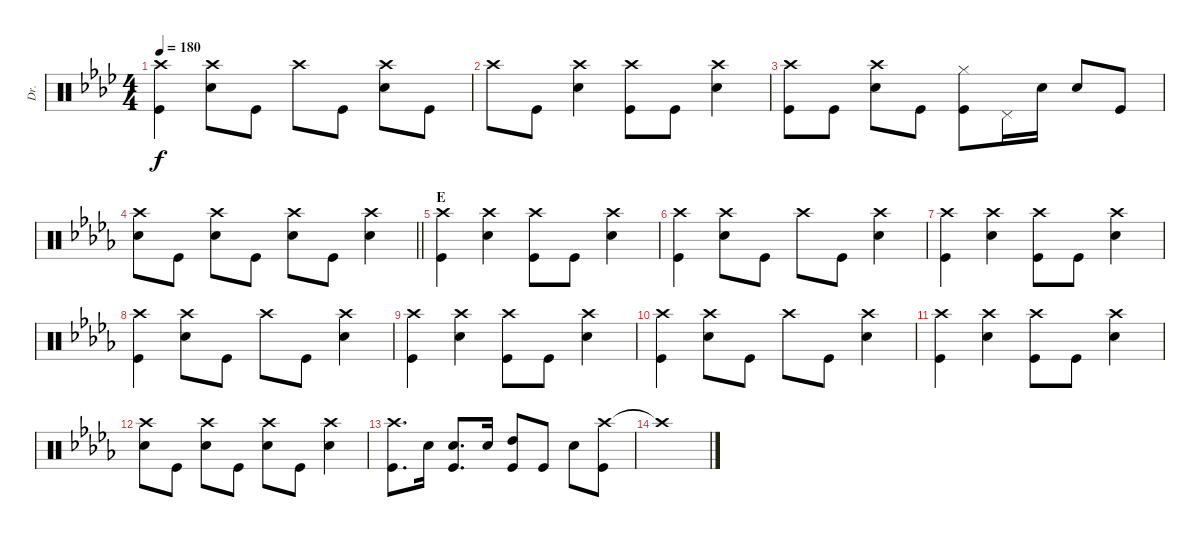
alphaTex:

\track ("Dr." "Dr.") {instrument percussion}
\staff {score}
\articulation defaults
\ts (4 4)
\tempo 180
\clef neutral
\ks ab
("Crash high (hit)" "Kick (hit)").4{dy f} ("Crash high (hit)" "Snare (hit) 2").8 "Kick (hit)".8 "Crash high (hit)".8 "Kick (hit)".8 ("Crash high (hit)" "Snare (hit) 2").8 "Kick (hit)".8 |
"Crash high (hit)".8 "Kick (hit)".8 ("Crash high (hit)" "Snare (hit) 2").4 ("Crash high (hit)" "Kick (hit)").8 "Kick (hit)".8 ("Crash high (hit)" "Snare (hit) 2").4 |
("Crash high (hit)" "Kick (hit)").8 "Kick (hit)".8 ("Crash high (hit)" "Snare (hit) 2").8 "Kick (hit)".8 ("Hi-Hat (closed)" "Kick (hit)").8 "Pedal Hi-Hat (hit)".16 "Snare (hit) 2".16 "Snare (hit) 2".8 "Kick (hit)".8 |
\barLineRight lightlight
\ks db
("Crash high (hit)" "Snare (hit) 2").8 "Kick (hit)".8 ("Crash high (hit)" "Snare (hit) 2").8 "Kick (hit)".8 ("Crash high (hit)" "Snare (hit) 2").8 "Kick (hit)".8 ("Crash high (hit)" "Snare (hit) 2").4 |
\section ("" "E")
("Crash high (hit)" "Kick (hit)").4 ("Crash high (hit)" "Snare (hit) 2").4 ("Crash high (hit)" "Kick (hit)").8 "Kick (hit)".8 ("Crash high (hit)" "Snare (hit) 2").4 |
("Crash high (hit)" "Kick (hit)").4 ("Crash high (hit)" "Snare (hit) 2").8 "Kick (hit)".8 "Crash high (hit)".8 "Kick (hit)".8 ("Crash high (hit)" "Snare (hit) 2").4 |
("Crash high (hit)" "Kick (hit)").4 ("Crash high (hit)" "Snare (hit) 2").4 ("Crash high (hit)" "Kick (hit)").8 "Kick (hit)".8 ("Crash high (hit)" "Snare (hit) 2").4 |
("Crash high (hit)" "Kick (hit)").4 ("Crash high (hit)" "Snare (hit) 2").8 "Kick (hit)".8 "Crash high (hit)".8 "Kick (hit)".8 ("Crash high (hit)" "Snare (hit) 2").4 |
("Crash high (hit)" "Kick (hit)").4 ("Crash high (hit)" "Snare (hit) 2").4 ("Crash high (hit)" "Kick (hit)").8 "Kick (hit)".8 ("Crash high (hit)" "Snare (hit) 2").4 |
("Crash high (hit)" "Kick (hit)").4 ("Crash high (hit)" "Snare (hit) 2").8 "Kick (hit)".8 "Crash high (hit)".8 "Kick (hit)".8 ("Crash high (hit)" "Snare (hit) 2").4 |
("Crash high (hit)" "Kick (hit)").4 ("Crash high (hit)" "Snare (hit) 2").4 ("Crash high (hit)" "Kick (hit)").8 "Kick (hit)".8 ("Crash high (hit)" "Snare (hit) 2").4 |
("Crash high (hit)" "Snare (hit) 2").8 "Kick (hit)".8 ("Crash high (hit)" "Snare (hit) 2").8 "Kick (hit)".8 ("Crash high (hit)" "Snare (hit) 2").8 "Kick (hit)".8 ("Crash high (hit)" "Snare (hit) 2").4 |
("Crash high (hit)" "Kick (hit)").8{d} "Snare (hit) 2".16 ("Snare (hit) 2" "Kick (hit)").8{d} "Snare (hit) 2".16 ("High Tom (hit)" "Kick (hit)").8 "Kick (hit)".8 "Snare (hit) 2".8 ("Crash high (hit)" "Kick (hit)").8 |
"Crash high (hit)"{t}.1
